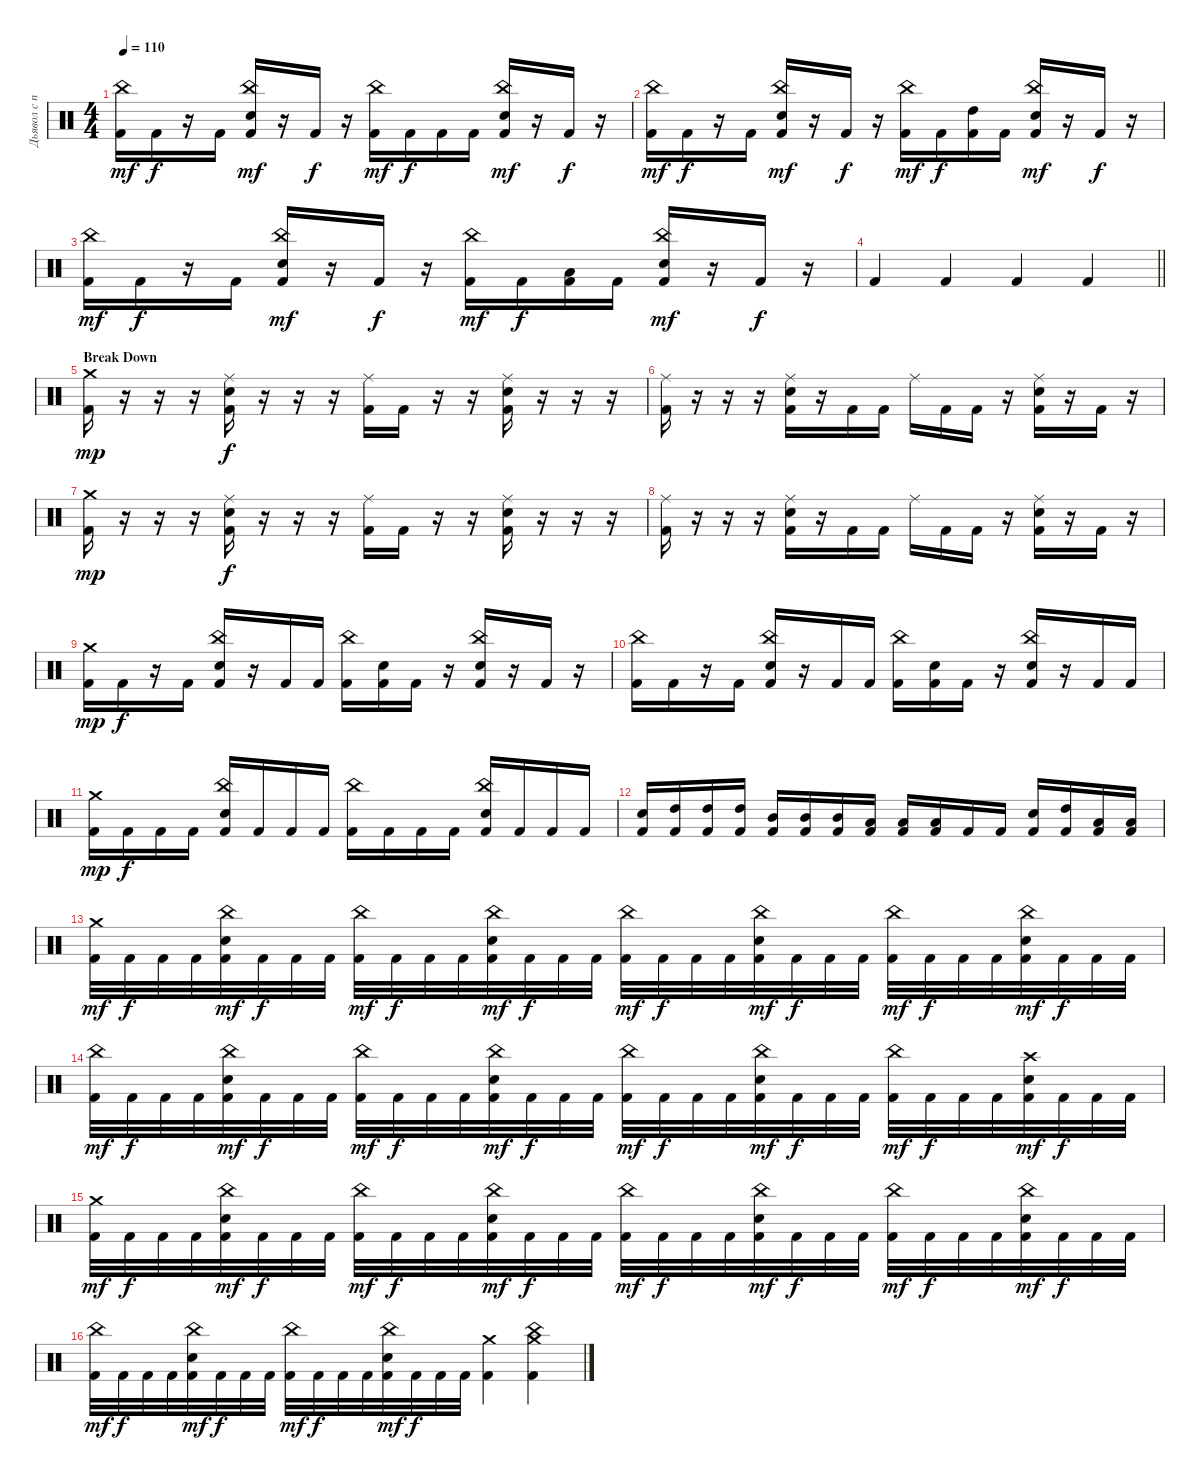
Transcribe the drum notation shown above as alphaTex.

\track ("Дьявол с палками" "Дьявол с п") {instrument percussion}
\staff {score}
\articulation defaults
\ts (4 4)
\tempo 110
\clef neutral
\ks c
("Kick (hit) 2" "China (hit)").16{dy mf} "Kick (hit) 2".16{dy f} r.16 "Kick (hit) 2".16 ("Kick (hit) 2" "Snare (hit) 2" "China (hit)").16{dy mf} r.16 "Kick (hit) 2".16{dy f} r.16 ("Kick (hit) 2" "China (hit)").16{dy mf} "Kick (hit) 2".16{dy f} "Kick (hit) 2".16 "Kick (hit) 2".16 ("Kick (hit) 2" "Snare (hit) 2" "China (hit)").16{dy mf} r.16 "Kick (hit) 2".16{dy f} r.16 |
("Kick (hit) 2" "China (hit)").16{dy mf} "Kick (hit) 2".16{dy f} r.16 "Kick (hit) 2".16 ("Kick (hit) 2" "Snare (hit) 2" "China (hit)").16{dy mf} r.16 "Kick (hit) 2".16{dy f} r.16 ("Kick (hit) 2" "China (hit)").16{dy mf} "Kick (hit) 2".16{dy f} ("Kick (hit) 2" "High Tom (hit)").16 "Kick (hit) 2".16 ("Kick (hit) 2" "Snare (hit) 2" "China (hit)").16{dy mf} r.16 "Kick (hit) 2".16{dy f} r.16 |
("Kick (hit) 2" "China (hit)").16{dy mf} "Kick (hit) 2".16{dy f} r.16 "Kick (hit) 2".16 ("Kick (hit) 2" "Snare (hit) 2" "China (hit)").16{dy mf} r.16 "Kick (hit) 2".16{dy f} r.16 ("Kick (hit) 2" "China (hit)").16{dy mf} "Kick (hit) 2".16{dy f} ("Kick (hit) 2" "Low Tom (hit)").16 "Kick (hit) 2".16 ("Kick (hit) 2" "Snare (hit) 2" "China (hit)").16{dy mf} r.16 "Kick (hit) 2".16{dy f} r.16 |
\barLineRight lightlight "Kick (hit) 2".4 "Kick (hit) 2".4 "Kick (hit) 2".4 "Kick (hit) 2".4
|
\section ("" "Break Down")
("Kick (hit) 2" "Crash medium (hit)").16{dy mp} r.16 r.16 r.16 ("Kick (hit) 2" "Snare (hit) 2" "Ride (middle)").16{dy f} r.16 r.16 r.16 ("Kick (hit) 2" "Ride (middle)").16 "Kick (hit) 2".16 r.16 r.16 ("Kick (hit) 2" "Snare (hit) 2" "Ride (middle)").16 r.16 r.16 r.16 |
("Kick (hit) 2" "Ride (middle)").16 r.16 r.16 r.16 ("Kick (hit) 2" "Snare (hit) 2" "Ride (middle)").16 r.16 "Kick (hit) 2".16 "Kick (hit) 2".16 "Ride (middle)".16 "Kick (hit) 2".16 "Kick (hit) 2".16 r.16 ("Kick (hit) 2" "Snare (hit) 2" "Ride (middle)").16 r.16 "Kick (hit) 2".16 r.16 |
("Kick (hit) 2" "Crash medium (hit)").16{dy mp} r.16 r.16 r.16 ("Kick (hit) 2" "Snare (hit) 2" "Ride (middle)").16{dy f} r.16 r.16 r.16 ("Kick (hit) 2" "Ride (middle)").16 "Kick (hit) 2".16 r.16 r.16 ("Kick (hit) 2" "Snare (hit) 2" "Ride (middle)").16 r.16 r.16 r.16 |
("Kick (hit) 2" "Ride (middle)").16 r.16 r.16 r.16 ("Kick (hit) 2" "Snare (hit) 2" "Ride (middle)").16 r.16 "Kick (hit) 2".16 "Kick (hit) 2".16 "Ride (middle)".16 "Kick (hit) 2".16 "Kick (hit) 2".16 r.16 ("Kick (hit) 2" "Snare (hit) 2" "Ride (middle)").16 r.16 "Kick (hit) 2".16 r.16 |
("Kick (hit) 2" "Crash medium (hit)").16{dy mp} "Kick (hit) 2".16{dy f} r.16 "Kick (hit) 2".16 ("Kick (hit) 2" "Snare (hit) 2" "China (hit)").16 r.16 "Kick (hit) 2".16 "Kick (hit) 2".16 ("Kick (hit) 2" "China (hit)").16 ("Kick (hit) 2" "Snare (hit) 2").16 "Kick (hit) 2".16 r.16 ("Kick (hit) 2" "Snare (hit) 2" "China (hit)").16 r.16 "Kick (hit) 2".16 r.16 |
("Kick (hit) 2" "China (hit)").16 "Kick (hit) 2".16 r.16 "Kick (hit) 2".16 ("Kick (hit) 2" "Snare (hit) 2" "China (hit)").16 r.16 "Kick (hit) 2".16 "Kick (hit) 2".16 ("China (hit)" "Kick (hit) 2").16 ("Kick (hit) 2" "Snare (hit) 2").16 "Kick (hit) 2".16 r.16 ("Kick (hit) 2" "Snare (hit) 2" "China (hit)").16 r.16 "Kick (hit) 2".16 "Kick (hit) 2".16 |
("Kick (hit) 2" "Crash medium (hit)").16{dy mp} "Kick (hit) 2".16{dy f} "Kick (hit) 2".16 "Kick (hit) 2".16 ("Kick (hit) 2" "Snare (hit) 2" "China (hit)").16 "Kick (hit) 2".16 "Kick (hit) 2".16 "Kick (hit) 2".16 ("Kick (hit) 2" "China (hit)").16 "Kick (hit) 2".16 "Kick (hit) 2".16 "Kick (hit) 2".16 ("Kick (hit) 2" "Snare (hit) 2" "China (hit)").16 "Kick (hit) 2".16 "Kick (hit) 2".16 "Kick (hit) 2".16 |
("Kick (hit) 2" "Snare (hit) 2").16 ("Kick (hit) 2" "High Tom (hit)").16 ("Kick (hit) 2" "High Tom (hit)").16 ("Kick (hit) 2" "High Tom (hit)").16 ("Kick (hit) 2" "Mid Tom (hit)").16 ("Kick (hit) 2" "Mid Tom (hit)").16 ("Kick (hit) 2" "Mid Tom (hit)").16 ("Kick (hit) 2" "Low Tom (hit)").16 ("Low Tom (hit)" "Kick (hit) 2").16 ("Kick (hit) 2" "Low Tom (hit)").16 "Kick (hit) 2".16 "Kick (hit) 2".16 ("Kick (hit) 2" "Snare (hit) 2").16 ("Kick (hit) 2" "High Tom (hit)").16 ("Kick (hit) 2" "Low Tom (hit)").16 ("Kick (hit) 2" "Low Tom (hit)").16 |
("Kick (hit) 2" "Crash medium (hit)").32{dy mf} "Kick (hit) 2".32{dy f} "Kick (hit) 2".32 "Kick (hit) 2".32 ("Kick (hit) 2" "Snare (hit) 2" "China (hit)").32{dy mf} "Kick (hit) 2".32{dy f} "Kick (hit) 2".32 "Kick (hit) 2".32 ("Kick (hit) 2" "China (hit)").32{dy mf} "Kick (hit) 2".32{dy f} "Kick (hit) 2".32 "Kick (hit) 2".32 ("Kick (hit) 2" "Snare (hit) 2" "China (hit)").32{dy mf} "Kick (hit) 2".32{dy f} "Kick (hit) 2".32 "Kick (hit) 2".32 ("Kick (hit) 2" "China (hit)").32{dy mf} "Kick (hit) 2".32{dy f} "Kick (hit) 2".32 "Kick (hit) 2".32 ("Kick (hit) 2" "Snare (hit) 2" "China (hit)").32{dy mf} "Kick (hit) 2".32{dy f} "Kick (hit) 2".32 "Kick (hit) 2".32 ("Kick (hit) 2" "China (hit)").32{dy mf} "Kick (hit) 2".32{dy f} "Kick (hit) 2".32 "Kick (hit) 2".32 ("Kick (hit) 2" "Snare (hit) 2" "China (hit)").32{dy mf} "Kick (hit) 2".32{dy f} "Kick (hit) 2".32 "Kick (hit) 2".32 |
("Kick (hit) 2" "China (hit)").32{dy mf} "Kick (hit) 2".32{dy f} "Kick (hit) 2".32 "Kick (hit) 2".32 ("Kick (hit) 2" "Snare (hit) 2" "China (hit)").32{dy mf} "Kick (hit) 2".32{dy f} "Kick (hit) 2".32 "Kick (hit) 2".32 ("Kick (hit) 2" "China (hit)").32{dy mf} "Kick (hit) 2".32{dy f} "Kick (hit) 2".32 "Kick (hit) 2".32 ("Kick (hit) 2" "Snare (hit) 2" "China (hit)").32{dy mf} "Kick (hit) 2".32{dy f} "Kick (hit) 2".32 "Kick (hit) 2".32 ("Kick (hit) 2" "China (hit)").32{dy mf} "Kick (hit) 2".32{dy f} "Kick (hit) 2".32 "Kick (hit) 2".32 ("Kick (hit) 2" "Snare (hit) 2" "China (hit)").32{dy mf} "Kick (hit) 2".32{dy f} "Kick (hit) 2".32 "Kick (hit) 2".32 ("Kick (hit) 2" "China (hit)").32{dy mf} "Kick (hit) 2".32{dy f} "Kick (hit) 2".32 "Kick (hit) 2".32 ("Kick (hit) 2" "Snare (hit) 2" "Crash high (hit)").32{dy mf} "Kick (hit) 2".32{dy f} "Kick (hit) 2".32 "Kick (hit) 2".32 |
("Kick (hit) 2" "Crash medium (hit)").32{dy mf} "Kick (hit) 2".32{dy f} "Kick (hit) 2".32 "Kick (hit) 2".32 ("Kick (hit) 2" "Snare (hit) 2" "China (hit)").32{dy mf} "Kick (hit) 2".32{dy f} "Kick (hit) 2".32 "Kick (hit) 2".32 ("Kick (hit) 2" "China (hit)").32{dy mf} "Kick (hit) 2".32{dy f} "Kick (hit) 2".32 "Kick (hit) 2".32 ("Kick (hit) 2" "Snare (hit) 2" "China (hit)").32{dy mf} "Kick (hit) 2".32{dy f} "Kick (hit) 2".32 "Kick (hit) 2".32 ("Kick (hit) 2" "China (hit)").32{dy mf} "Kick (hit) 2".32{dy f} "Kick (hit) 2".32 "Kick (hit) 2".32 ("Kick (hit) 2" "Snare (hit) 2" "China (hit)").32{dy mf} "Kick (hit) 2".32{dy f} "Kick (hit) 2".32 "Kick (hit) 2".32 ("Kick (hit) 2" "China (hit)").32{dy mf} "Kick (hit) 2".32{dy f} "Kick (hit) 2".32 "Kick (hit) 2".32 ("Kick (hit) 2" "Snare (hit) 2" "China (hit)").32{dy mf} "Kick (hit) 2".32{dy f} "Kick (hit) 2".32 "Kick (hit) 2".32 |
("Kick (hit) 2" "China (hit)").32{dy mf} "Kick (hit) 2".32{dy f} "Kick (hit) 2".32 "Kick (hit) 2".32 ("Kick (hit) 2" "Snare (hit) 2" "China (hit)").32{dy mf} "Kick (hit) 2".32{dy f} "Kick (hit) 2".32 "Kick (hit) 2".32 ("Kick (hit) 2" "China (hit)").32{dy mf} "Kick (hit) 2".32{dy f} "Kick (hit) 2".32 "Kick (hit) 2".32 ("Kick (hit) 2" "Snare (hit) 2" "China (hit)").32{dy mf} "Kick (hit) 2".32{dy f} "Kick (hit) 2".32 "Kick (hit) 2".32 ("Kick (hit) 2" "Crash medium (hit)").4 ("Kick (hit) 2" "Crash medium (hit)" "China (hit)").4
